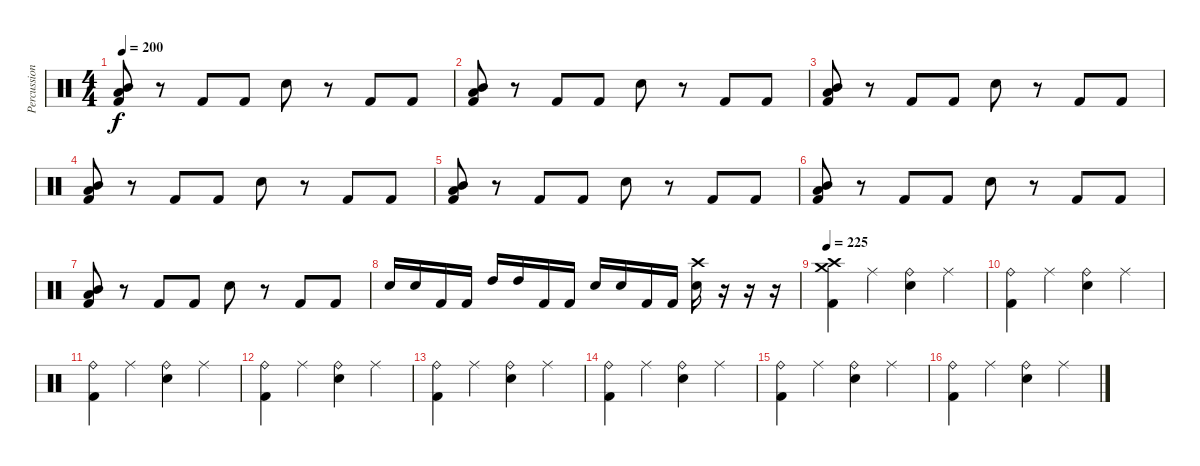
\track ("Percussion" "Percussion") {instrument percussion}
\staff {score}
\articulation defaults
\ts (4 4)
\tempo 200
\clef neutral
\ks c
("Mid Tom (hit)" "Low Tom (hit)" "Kick (hit) 2").8{dy f} r.8 "Kick (hit) 2".8 "Kick (hit) 2".8 "Snare (hit) 2".8 r.8 "Kick (hit) 2".8 "Kick (hit) 2".8 |
("Mid Tom (hit)" "Low Tom (hit)" "Kick (hit) 2").8 r.8 "Kick (hit) 2".8 "Kick (hit) 2".8 "Snare (hit) 2".8 r.8 "Kick (hit) 2".8 "Kick (hit) 2".8 |
("Mid Tom (hit)" "Low Tom (hit)" "Kick (hit) 2").8 r.8 "Kick (hit) 2".8 "Kick (hit) 2".8 "Snare (hit) 2".8 r.8 "Kick (hit) 2".8 "Kick (hit) 2".8 |
("Mid Tom (hit)" "Low Tom (hit)" "Kick (hit) 2").8 r.8 "Kick (hit) 2".8 "Kick (hit) 2".8 "Snare (hit) 2".8 r.8 "Kick (hit) 2".8 "Kick (hit) 2".8 |
("Mid Tom (hit)" "Low Tom (hit)" "Kick (hit) 2").8 r.8 "Kick (hit) 2".8 "Kick (hit) 2".8 "Snare (hit) 2".8 r.8 "Kick (hit) 2".8 "Kick (hit) 2".8 |
("Mid Tom (hit)" "Low Tom (hit)" "Kick (hit) 2").8 r.8 "Kick (hit) 2".8 "Kick (hit) 2".8 "Snare (hit) 2".8 r.8 "Kick (hit) 2".8 "Kick (hit) 2".8 |
("Mid Tom (hit)" "Low Tom (hit)" "Kick (hit) 2").8 r.8 "Kick (hit) 2".8 "Kick (hit) 2".8 "Snare (hit) 2".8 r.8 "Kick (hit) 2".8 "Kick (hit) 2".8 |
"Snare (hit) 2".16 "Snare (hit) 2".16 "Kick (hit) 2".16 "Kick (hit) 2".16 "High Tom (hit)".16 "High Tom (hit)".16 "Kick (hit) 2".16 "Kick (hit) 2".16 "Snare (hit) 2".16 "Snare (hit) 2".16 "Kick (hit) 2".16 "Kick (hit) 2".16 ("Crash high (hit)" "Snare (hit) 2").16 r.16 r.16 r.16 |
\tempo 225
("Crash high (hit)" "Crash medium (hit)" "Kick (hit) 2").4 "Ride (middle)".4 ("Ride (bell)" "Snare (hit) 2").4 "Ride (middle)".4 |
("Ride (bell)" "Kick (hit) 2").4 "Ride (middle)".4 ("Ride (bell)" "Snare (hit) 2").4 "Ride (middle)".4 |
("Ride (bell)" "Kick (hit) 2").4 "Ride (middle)".4 ("Ride (bell)" "Snare (hit) 2").4 "Ride (middle)".4 |
("Ride (bell)" "Kick (hit) 2").4 "Ride (middle)".4 ("Ride (bell)" "Snare (hit) 2").4 "Ride (middle)".4 |
("Ride (bell)" "Kick (hit) 2").4 "Ride (middle)".4 ("Ride (bell)" "Snare (hit) 2").4 "Ride (middle)".4 |
("Ride (bell)" "Kick (hit) 2").4 "Ride (middle)".4 ("Ride (bell)" "Snare (hit) 2").4 "Ride (middle)".4 |
("Ride (bell)" "Kick (hit) 2").4 "Ride (middle)".4 ("Ride (bell)" "Snare (hit) 2").4 "Ride (middle)".4 |
("Ride (bell)" "Kick (hit) 2").4 "Ride (middle)".4 ("Ride (bell)" "Snare (hit) 2").4 "Ride (middle)".4
